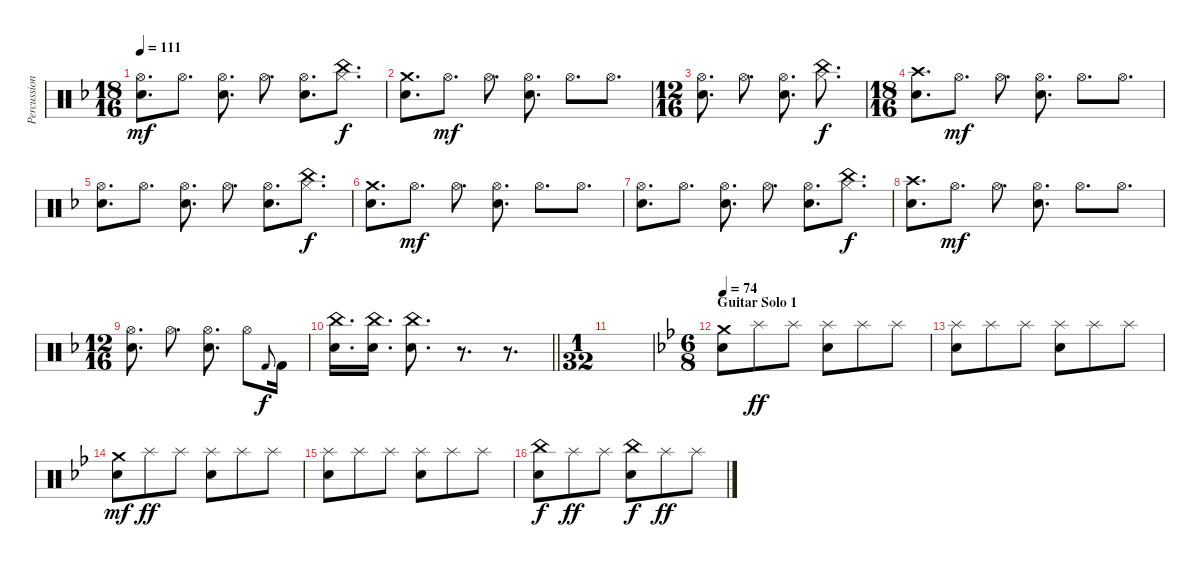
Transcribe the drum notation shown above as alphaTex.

\track ("Percussion" "Percussion") {instrument percussion}
\staff {score}
\articulation defaults
\ts (18 16)
\tempo 111
\clef neutral
\ks f
("Hi-Hat (open)" "Electric Snare (hit)").8{d dy mf} "Hi-Hat (open)".8{d} ("Hi-Hat (open)" "Electric Snare (hit)").8{d} "Hi-Hat (open)".8{d} ("Hi-Hat (open)" "Electric Snare (hit)").8{d} ("China (hit)" "Hi-Hat (closed)").8{d dy f} |
("Crash medium (hit)" "Electric Snare (hit)").8{d} "Hi-Hat (open)".8{d dy mf} "Hi-Hat (open)".8{d} ("Hi-Hat (open)" "Electric Snare (hit)").8{d} "Hi-Hat (open)".8{d} "Hi-Hat (open)".8{d} |
\ts (12 16)
("Hi-Hat (open)" "Electric Snare (hit)").8{d} "Hi-Hat (open)".8{d} ("Hi-Hat (open)" "Electric Snare (hit)").8{d} ("China (hit)" "Hi-Hat (closed)").8{d dy f} |
\ts (18 16)
("Crash high (hit)" "Electric Snare (hit)").8{d} "Hi-Hat (open)".8{d dy mf} "Hi-Hat (open)".8{d} ("Hi-Hat (open)" "Electric Snare (hit)").8{d} "Hi-Hat (open)".8{d} "Hi-Hat (open)".8{d} |
("Hi-Hat (open)" "Electric Snare (hit)").8{d} "Hi-Hat (open)".8{d} ("Hi-Hat (open)" "Electric Snare (hit)").8{d} "Hi-Hat (open)".8{d} ("Hi-Hat (open)" "Electric Snare (hit)").8{d} ("China (hit)" "Hi-Hat (closed)").8{d dy f} |
("Crash medium (hit)" "Electric Snare (hit)").8{d} "Hi-Hat (open)".8{d dy mf} "Hi-Hat (open)".8{d} ("Hi-Hat (open)" "Electric Snare (hit)").8{d} "Hi-Hat (open)".8{d} "Hi-Hat (open)".8{d} |
("Hi-Hat (open)" "Electric Snare (hit)").8{d} "Hi-Hat (open)".8{d} ("Hi-Hat (open)" "Electric Snare (hit)").8{d} "Hi-Hat (open)".8{d} ("Hi-Hat (open)" "Electric Snare (hit)").8{d} ("China (hit)" "Hi-Hat (closed)").8{d dy f} |
("Crash high (hit)" "Electric Snare (hit)").8{d} "Hi-Hat (open)".8{d dy mf} "Hi-Hat (open)".8{d} ("Hi-Hat (open)" "Electric Snare (hit)").8{d} "Hi-Hat (open)".8{d} "Hi-Hat (open)".8{d} |
\ts (12 16)
("Hi-Hat (open)" "Electric Snare (hit)").8{d} "Hi-Hat (open)".8{d} ("Hi-Hat (open)" "Electric Snare (hit)").8{d} "Hi-Hat (open)".8 "Kick (hit) 2".8{gr onbeat dy f} "Kick (hit) 2".16 |
\barLineRight lightlight
("China (hit)" "Electric Snare (hit)").16{d} ("China (hit)" "Electric Snare (hit)").16{d} ("China (hit)" "Electric Snare (hit)").8{d} r.8{d} r.8{d} |
\ts (1 32)
|
\ts (6 8)
\section ("" "Guitar Solo 1")
\tempo 74
\ks bb
("Crash medium (hit)" "Electric Snare (hit)").8 "Splash (hit)".8{dy ff} "Splash (hit)".8 ("Splash (hit)" "Electric Snare (hit)").8 "Splash (hit)".8 "Splash (hit)".8 |
("Splash (hit)" "Electric Snare (hit)").8 "Splash (hit)".8 "Splash (hit)".8 ("Splash (hit)" "Electric Snare (hit)").8 "Splash (hit)".8 "Splash (hit)".8 |
("Crash medium (hit)" "Electric Snare (hit)").8{dy mf} "Splash (hit)".8{dy ff} "Splash (hit)".8 ("Splash (hit)" "Electric Snare (hit)").8 "Splash (hit)".8 "Splash (hit)".8 |
("Splash (hit)" "Electric Snare (hit)").8 "Splash (hit)".8 "Splash (hit)".8 ("Splash (hit)" "Electric Snare (hit)").8 "Splash (hit)".8 "Splash (hit)".8 |
("China (hit)" "Electric Snare (hit)").8{dy f} "Splash (hit)".8{dy ff} "Splash (hit)".8 ("China (hit)" "Electric Snare (hit)").8{dy f} "Splash (hit)".8{dy ff} "Splash (hit)".8
